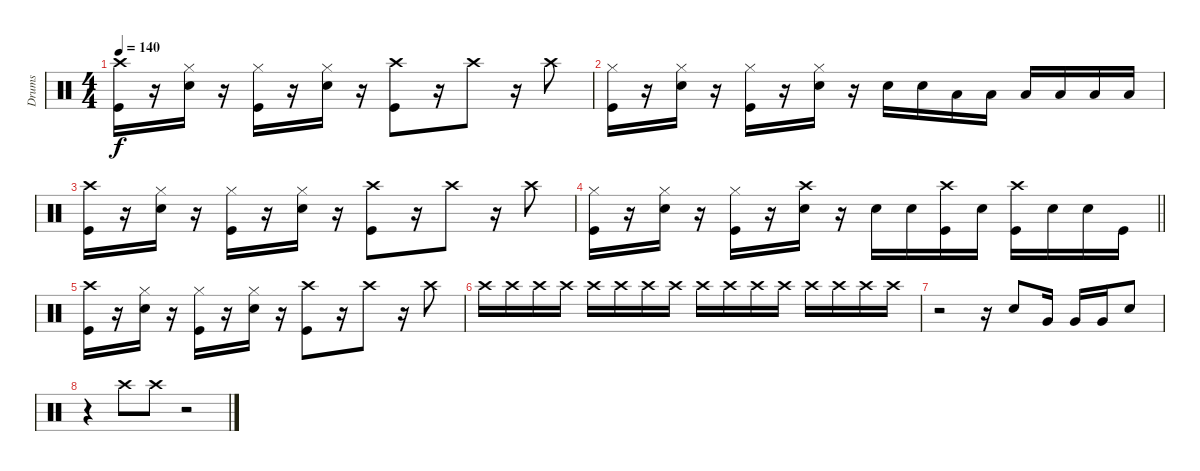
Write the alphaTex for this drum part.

\track ("Drums" "Drums") {instrument percussion}
\staff {score}
\articulation defaults
\ts (4 4)
\tempo 140
\clef neutral
\ks c
("Crash high (hit)" "Kick (hit)").16{dy f} r.16 ("Hi-Hat (closed)" "Snare (hit) 2").16 r.16 ("Hi-Hat (closed)" "Kick (hit)").16 r.16 ("Hi-Hat (closed)" "Snare (hit) 2").16 r.16 ("Crash high (hit)" "Kick (hit)").8 r.16 "Crash high (hit)".8 r.16 "Crash high (hit)".8 |
("Hi-Hat (closed)" "Kick (hit)").16 r.16 ("Hi-Hat (closed)" "Snare (hit) 2").16 r.16 ("Hi-Hat (closed)" "Kick (hit)").16 r.16 ("Hi-Hat (closed)" "Snare (hit) 2").16 r.16 "Snare (hit) 2".16 "Snare (hit) 2".16 "Low Tom (hit)".16 "Low Tom (hit)".16 "Low Tom (hit)".16 "Low Tom (hit)".16 "Low Tom (hit)".16 "Low Tom (hit)".16 |
("Crash high (hit)" "Kick (hit)").16 r.16 ("Hi-Hat (closed)" "Snare (hit) 2").16 r.16 ("Hi-Hat (closed)" "Kick (hit)").16 r.16 ("Hi-Hat (closed)" "Snare (hit) 2").16 r.16 ("Crash high (hit)" "Kick (hit)").8 r.16 "Crash high (hit)".8 r.16 "Crash high (hit)".8 |
\barLineRight lightlight
("Hi-Hat (closed)" "Kick (hit)").16 r.16 ("Hi-Hat (closed)" "Snare (hit) 2").16 r.16 ("Hi-Hat (closed)" "Kick (hit)").16 r.16 ("Crash high (hit)" "Snare (hit) 2").16 r.16 "Snare (hit) 2".16 "Snare (hit) 2".16 ("Crash high (hit)" "Kick (hit)").16 "Snare (hit) 2".16 ("Crash high (hit)" "Kick (hit)").16 "Snare (hit) 2".16 "Snare (hit) 2".16 "Kick (hit)".16 |
("Crash high (hit)" "Kick (hit)").16 r.16 ("Hi-Hat (closed)" "Snare (hit) 2").16 r.16 ("Hi-Hat (closed)" "Kick (hit)").16 r.16 ("Hi-Hat (closed)" "Snare (hit) 2").16 r.16 ("Crash high (hit)" "Kick (hit)").8 r.16 "Crash high (hit)".8 r.16 "Crash high (hit)".8 |
"Crash high (hit)".16 "Crash high (hit)".16 "Crash high (hit)".16 "Crash high (hit)".16 "Crash high (hit)".16 "Crash high (hit)".16 "Crash high (hit)".16 "Crash high (hit)".16 "Crash high (hit)".16 "Crash high (hit)".16 "Crash high (hit)".16 "Crash high (hit)".16 "Crash high (hit)".16 "Crash high (hit)".16 "Crash high (hit)".16 "Crash high (hit)".16 |
r.2 r.16 "Snare (hit) 2".8 "Very Low Tom (hit)".16 "Very Low Tom (hit)".16 "Very Low Tom (hit)".16 "Snare (hit) 2".8 |
r.4 "Crash high (hit)".8 "Crash high (hit)".8 r.2
